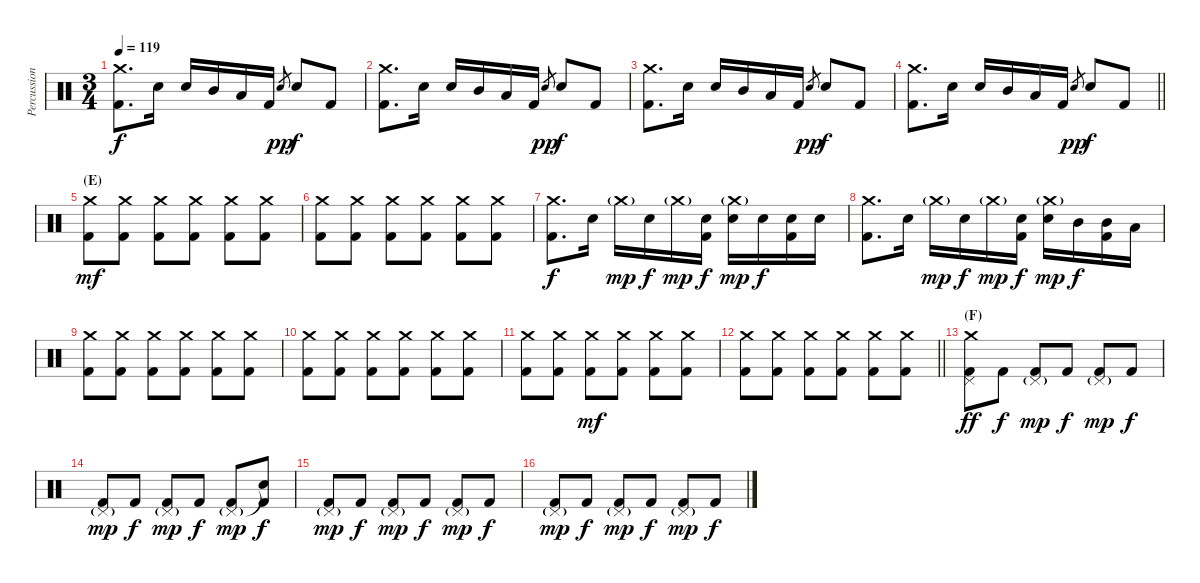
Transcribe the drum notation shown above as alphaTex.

\track ("Percussion 1" "Percussion") {instrument percussion}
\staff {score}
\articulation defaults
\ts (3 4)
\tempo 119
\clef neutral
\ks c
("Crash medium (hit)" "Kick (hit) 2").8{d dy f} "Snare (hit) 2".16 "Snare (hit) 2".16 "Mid Tom (hit)".16 "Low Tom (hit)".16 "Kick (hit) 2".16 "Snare (hit) 2".8{gr dy pp} "Snare (hit) 2".8{dy f} "Kick (hit) 2".8 |
("Crash medium (hit)" "Kick (hit) 2").8{d} "Snare (hit) 2".16 "Snare (hit) 2".16 "Mid Tom (hit)".16 "Low Tom (hit)".16 "Kick (hit) 2".16 "Snare (hit) 2".8{gr dy pp} "Snare (hit) 2".8{dy f} "Kick (hit) 2".8 |
("Crash medium (hit)" "Kick (hit) 2").8{d} "Snare (hit) 2".16 "Snare (hit) 2".16 "Mid Tom (hit)".16 "Low Tom (hit)".16 "Kick (hit) 2".16 "Snare (hit) 2".8{gr dy pp} "Snare (hit) 2".8{dy f} "Kick (hit) 2".8 |
\barLineRight lightlight
("Crash medium (hit)" "Kick (hit) 2").8{d} "Snare (hit) 2".16 "Snare (hit) 2".16 "Mid Tom (hit)".16 "Low Tom (hit)".16 "Kick (hit) 2".16 "Snare (hit) 2".8{gr dy pp} "Snare (hit) 2".8{dy f} "Kick (hit) 2".8 |
\section ("" "(E)")
("Crash medium (hit)" "Kick (hit) 2").8{dy mf} ("Crash medium (hit)" "Kick (hit) 2").8 ("Crash medium (hit)" "Kick (hit) 2").8 ("Crash medium (hit)" "Kick (hit) 2").8 ("Crash medium (hit)" "Kick (hit) 2").8 ("Crash medium (hit)" "Kick (hit) 2").8 |
("Crash medium (hit)" "Kick (hit) 2").8 ("Crash medium (hit)" "Kick (hit) 2").8 ("Crash medium (hit)" "Kick (hit) 2").8 ("Crash medium (hit)" "Kick (hit) 2").8 ("Crash medium (hit)" "Kick (hit) 2").8 ("Crash medium (hit)" "Kick (hit) 2").8 |
("Crash medium (hit)" "Kick (hit) 2").8{d dy f} "Snare (hit) 2".16 "Crash medium (hit)"{g}.16{dy mp} "Snare (hit) 2".16{dy f} "Crash medium (hit)"{g}.16{dy mp} ("Snare (hit) 2" "Kick (hit) 2").16{dy f} ("Crash medium (hit)"{g} "Snare (hit) 2").16{dy mp} "Snare (hit) 2".16{dy f} ("Snare (hit) 2" "Kick (hit) 2").16 "Snare (hit) 2".16 |
("Crash medium (hit)" "Kick (hit) 2").8{d} "Snare (hit) 2".16 "Crash medium (hit)"{g}.16{dy mp} "Snare (hit) 2".16{dy f} "Crash medium (hit)"{g}.16{dy mp} ("Snare (hit) 2" "Kick (hit) 2").16{dy f} ("Crash medium (hit)"{g} "Snare (hit) 2").16{dy mp} "Mid Tom (hit)".16{dy f} ("Mid Tom (hit)" "Kick (hit) 2").16 "Low Tom (hit)".16 |
("Crash medium (hit)" "Kick (hit) 2").8 ("Crash medium (hit)" "Kick (hit) 2").8 ("Crash medium (hit)" "Kick (hit) 2").8 ("Crash medium (hit)" "Kick (hit) 2").8 ("Crash medium (hit)" "Kick (hit) 2").8 ("Crash medium (hit)" "Kick (hit) 2").8 |
("Crash medium (hit)" "Kick (hit) 2").8 ("Crash medium (hit)" "Kick (hit) 2").8 ("Crash medium (hit)" "Kick (hit) 2").8 ("Crash medium (hit)" "Kick (hit) 2").8 ("Crash medium (hit)" "Kick (hit) 2").8 ("Crash medium (hit)" "Kick (hit) 2").8 |
("Crash medium (hit)" "Kick (hit) 2").8 ("Crash medium (hit)" "Kick (hit) 2").8 ("Crash medium (hit)" "Kick (hit) 2").8{dy mf} ("Crash medium (hit)" "Kick (hit) 2").8 ("Crash medium (hit)" "Kick (hit) 2").8 ("Crash medium (hit)" "Kick (hit) 2").8 |
\barLineRight lightlight
("Crash medium (hit)" "Kick (hit) 2").8 ("Crash medium (hit)" "Kick (hit) 2").8 ("Crash medium (hit)" "Kick (hit) 2").8 ("Crash medium (hit)" "Kick (hit) 2").8 ("Crash medium (hit)" "Kick (hit) 2").8 ("Crash medium (hit)" "Kick (hit) 2").8 |
\section ("" "(F)")
("Crash medium (hit)" "Pedal Hi-Hat (hit)" "Kick (hit) 2").8{dy ff volume 12} "Kick (hit) 2".8{dy f} ("Pedal Hi-Hat (hit)"{g} "Kick (hit) 2").8{dy mp} "Kick (hit) 2".8{dy f} ("Pedal Hi-Hat (hit)"{g} "Kick (hit) 2").8{dy mp} "Kick (hit) 2".8{dy f} |
("Pedal Hi-Hat (hit)"{g} "Kick (hit) 2").8{dy mp} "Kick (hit) 2".8{dy f} ("Pedal Hi-Hat (hit)"{g} "Kick (hit) 2").8{dy mp} "Kick (hit) 2".8{dy f} ("Pedal Hi-Hat (hit)"{g} "Kick (hit) 2").8{dy mp} ("Snare (hit)"{t} "Kick (hit) 2").8{dy f} |
("Pedal Hi-Hat (hit)"{g} "Kick (hit) 2").8{dy mp} "Kick (hit) 2".8{dy f} ("Pedal Hi-Hat (hit)"{g} "Kick (hit) 2").8{dy mp} "Kick (hit) 2".8{dy f} ("Pedal Hi-Hat (hit)"{g} "Kick (hit) 2").8{dy mp} "Kick (hit) 2".8{dy f} |
("Pedal Hi-Hat (hit)"{g} "Kick (hit) 2").8{dy mp} "Kick (hit) 2".8{dy f} ("Pedal Hi-Hat (hit)"{g} "Kick (hit) 2").8{dy mp} "Kick (hit) 2".8{dy f} ("Pedal Hi-Hat (hit)"{g} "Kick (hit) 2").8{dy mp} "Kick (hit) 2".8{dy f}
